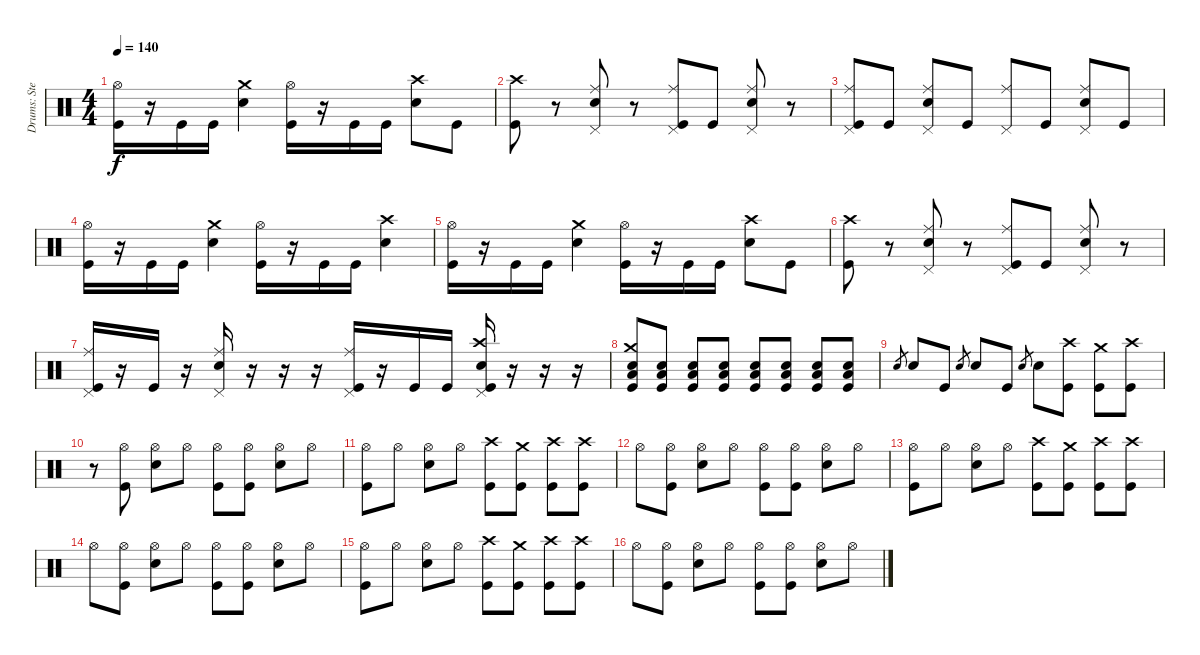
\track ("Drums: Steven Adler" "Drums: Ste") {instrument percussion}
\staff {score}
\articulation defaults
\ts (4 4)
\tempo 140
\clef neutral
\ks c
("Hi-Hat (open)" "Kick (hit)").16{dy f} r.16 "Kick (hit)".16 "Kick (hit)".16 ("Crash medium (hit)" "Electric Snare (hit)").4 ("Hi-Hat (open)" "Kick (hit)").16 r.16 "Kick (hit)".16 "Kick (hit)".16 ("Crash high (hit)" "Electric Snare (hit)").8 "Kick (hit)".8 |
("Crash high (hit)" "Kick (hit)").8 r.8 ("Ride (middle)" "Pedal Hi-Hat (hit)" "Electric Snare (hit)").8 r.8 ("Ride (middle)" "Pedal Hi-Hat (hit)" "Kick (hit)").8 "Kick (hit)".8 ("Ride (middle)" "Pedal Hi-Hat (hit)" "Electric Snare (hit)").8 r.8 |
("Ride (middle)" "Pedal Hi-Hat (hit)" "Kick (hit)").8 "Kick (hit)".8 ("Ride (middle)" "Pedal Hi-Hat (hit)" "Electric Snare (hit)").8 "Kick (hit)".8 ("Ride (middle)" "Pedal Hi-Hat (hit)").8 "Kick (hit)".8 ("Ride (middle)" "Pedal Hi-Hat (hit)" "Electric Snare (hit)").8 "Kick (hit)".8 |
("Hi-Hat (open)" "Kick (hit)").16 r.16 "Kick (hit)".16 "Kick (hit)".16 ("Crash medium (hit)" "Electric Snare (hit)").4 ("Hi-Hat (open)" "Kick (hit)").16 r.16 "Kick (hit)".16 "Kick (hit)".16 ("Crash high (hit)" "Electric Snare (hit)").4 |
("Hi-Hat (open)" "Kick (hit)").16 r.16 "Kick (hit)".16 "Kick (hit)".16 ("Crash medium (hit)" "Electric Snare (hit)").4 ("Hi-Hat (open)" "Kick (hit)").16 r.16 "Kick (hit)".16 "Kick (hit)".16 ("Crash high (hit)" "Electric Snare (hit)").8 "Kick (hit)".8 |
("Crash high (hit)" "Kick (hit)").8 r.8 ("Ride (middle)" "Pedal Hi-Hat (hit)" "Electric Snare (hit)").8 r.8 ("Ride (middle)" "Pedal Hi-Hat (hit)" "Kick (hit)").8 "Kick (hit)".8 ("Ride (middle)" "Pedal Hi-Hat (hit)" "Electric Snare (hit)").8 r.8 |
("Ride (middle)" "Pedal Hi-Hat (hit)" "Kick (hit)").16 r.16 "Kick (hit)".16 r.16 ("Ride (middle)" "Pedal Hi-Hat (hit)" "Electric Snare (hit)").16 r.16 r.16 r.16 ("Ride (middle)" "Pedal Hi-Hat (hit)" "Kick (hit)").16 r.16 "Kick (hit)".16 "Kick (hit)".16 ("Crash high (hit)" "Pedal Hi-Hat (hit)" "Electric Snare (hit)" "Kick (hit)").16 r.16 r.16 r.16 |
("Crash medium (hit)" "Electric Snare (hit)" "Low Floor Tom (hit)" "Kick (hit)").8 ("Electric Snare (hit)" "Low Floor Tom (hit)" "Kick (hit)").8 ("Electric Snare (hit)" "Low Floor Tom (hit)" "Kick (hit)").8 ("Electric Snare (hit)" "Low Floor Tom (hit)" "Kick (hit)").8 ("Electric Snare (hit)" "Low Floor Tom (hit)" "Kick (hit)").8 ("Electric Snare (hit)" "Low Floor Tom (hit)" "Kick (hit)").8 ("Electric Snare (hit)" "Low Floor Tom (hit)" "Kick (hit)").8 ("Electric Snare (hit)" "Low Floor Tom (hit)" "Kick (hit)").8 |
"Electric Snare (hit)".8{gr} "Electric Snare (hit)".8 "Kick (hit)".8 "Electric Snare (hit)".8{gr} "Electric Snare (hit)".8 "Kick (hit)".8 "Electric Snare (hit)".8{gr} "Electric Snare (hit)".8 ("Crash high (hit)" "Kick (hit)").8 ("Crash medium (hit)" "Kick (hit)").8 ("Crash high (hit)" "Kick (hit)").8 |
r.8 ("Hi-Hat (open)" "Kick (hit)").8 ("Hi-Hat (open)" "Electric Snare (hit)").8 "Hi-Hat (open)".8 ("Hi-Hat (open)" "Kick (hit)").8 ("Hi-Hat (open)" "Kick (hit)").8 ("Hi-Hat (open)" "Electric Snare (hit)").8 "Hi-Hat (open)".8 |
("Hi-Hat (open)" "Kick (hit)").8 "Hi-Hat (open)".8 ("Hi-Hat (open)" "Electric Snare (hit)").8 "Hi-Hat (open)".8 ("Crash high (hit)" "Kick (hit)").8 ("Crash medium (hit)" "Kick (hit)").8 ("Crash high (hit)" "Kick (hit)").8 ("Crash high (hit)" "Kick (hit)").8 |
"Hi-Hat (open)".8 ("Hi-Hat (open)" "Kick (hit)").8 ("Hi-Hat (open)" "Electric Snare (hit)").8 "Hi-Hat (open)".8 ("Hi-Hat (open)" "Kick (hit)").8 ("Hi-Hat (open)" "Kick (hit)").8 ("Hi-Hat (open)" "Electric Snare (hit)").8 "Hi-Hat (open)".8 |
("Hi-Hat (open)" "Kick (hit)").8 "Hi-Hat (open)".8 ("Hi-Hat (open)" "Electric Snare (hit)").8 "Hi-Hat (open)".8 ("Crash high (hit)" "Kick (hit)").8 ("Crash medium (hit)" "Kick (hit)").8 ("Crash high (hit)" "Kick (hit)").8 ("Crash high (hit)" "Kick (hit)").8 |
"Hi-Hat (open)".8 ("Hi-Hat (open)" "Kick (hit)").8 ("Hi-Hat (open)" "Electric Snare (hit)").8 "Hi-Hat (open)".8 ("Hi-Hat (open)" "Kick (hit)").8 ("Hi-Hat (open)" "Kick (hit)").8 ("Hi-Hat (open)" "Electric Snare (hit)").8 "Hi-Hat (open)".8 |
("Hi-Hat (open)" "Kick (hit)").8 "Hi-Hat (open)".8 ("Hi-Hat (open)" "Electric Snare (hit)").8 "Hi-Hat (open)".8 ("Crash high (hit)" "Kick (hit)").8 ("Crash medium (hit)" "Kick (hit)").8 ("Crash high (hit)" "Kick (hit)").8 ("Crash high (hit)" "Kick (hit)").8 |
"Hi-Hat (open)".8 ("Hi-Hat (open)" "Kick (hit)").8 ("Hi-Hat (open)" "Electric Snare (hit)").8 "Hi-Hat (open)".8 ("Hi-Hat (open)" "Kick (hit)").8 ("Hi-Hat (open)" "Kick (hit)").8 ("Hi-Hat (open)" "Electric Snare (hit)").8 "Hi-Hat (open)".8
